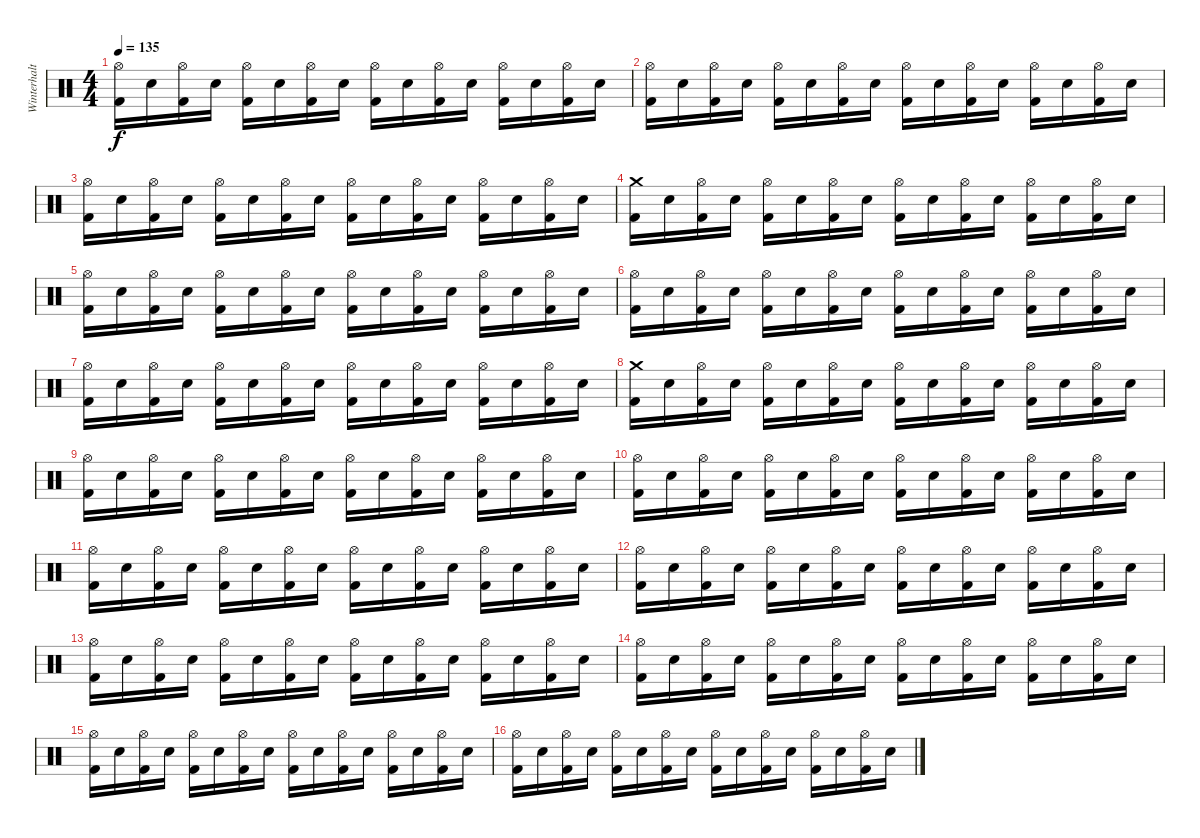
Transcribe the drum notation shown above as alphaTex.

\track ("Winterhalter" "Winterhalt") {instrument percussion}
\staff {score}
\articulation defaults
\ts (4 4)
\tempo 135
\clef neutral
\ks c
("Hi-Hat (open)" "Kick (hit) 2").16{dy f} "Snare (hit) 2".16 ("Hi-Hat (open)" "Kick (hit) 2").16 "Snare (hit) 2".16 ("Hi-Hat (open)" "Kick (hit) 2").16 "Snare (hit) 2".16 ("Hi-Hat (open)" "Kick (hit) 2").16 "Snare (hit) 2".16 ("Hi-Hat (open)" "Kick (hit) 2").16 "Snare (hit) 2".16 ("Hi-Hat (open)" "Kick (hit) 2").16 "Snare (hit) 2".16 ("Hi-Hat (open)" "Kick (hit) 2").16 "Snare (hit) 2".16 ("Hi-Hat (open)" "Kick (hit) 2").16 "Snare (hit) 2".16 |
("Hi-Hat (open)" "Kick (hit) 2").16 "Snare (hit) 2".16 ("Hi-Hat (open)" "Kick (hit) 2").16 "Snare (hit) 2".16 ("Hi-Hat (open)" "Kick (hit) 2").16 "Snare (hit) 2".16 ("Hi-Hat (open)" "Kick (hit) 2").16 "Snare (hit) 2".16 ("Hi-Hat (open)" "Kick (hit) 2").16 "Snare (hit) 2".16 ("Hi-Hat (open)" "Kick (hit) 2").16 "Snare (hit) 2".16 ("Hi-Hat (open)" "Kick (hit) 2").16 "Snare (hit) 2".16 ("Hi-Hat (open)" "Kick (hit) 2").16 "Snare (hit) 2".16 |
("Hi-Hat (open)" "Kick (hit) 2").16 "Snare (hit) 2".16 ("Hi-Hat (open)" "Kick (hit) 2").16 "Snare (hit) 2".16 ("Hi-Hat (open)" "Kick (hit) 2").16 "Snare (hit) 2".16 ("Hi-Hat (open)" "Kick (hit) 2").16 "Snare (hit) 2".16 ("Hi-Hat (open)" "Kick (hit) 2").16 "Snare (hit) 2".16 ("Hi-Hat (open)" "Kick (hit) 2").16 "Snare (hit) 2".16 ("Hi-Hat (open)" "Kick (hit) 2").16 "Snare (hit) 2".16 ("Hi-Hat (open)" "Kick (hit) 2").16 "Snare (hit) 2".16 |
("Crash medium (hit)" "Kick (hit) 2").16 "Snare (hit) 2".16 ("Hi-Hat (open)" "Kick (hit) 2").16 "Snare (hit) 2".16 ("Hi-Hat (open)" "Kick (hit) 2").16 "Snare (hit) 2".16 ("Hi-Hat (open)" "Kick (hit) 2").16 "Snare (hit) 2".16 ("Hi-Hat (open)" "Kick (hit) 2").16 "Snare (hit) 2".16 ("Hi-Hat (open)" "Kick (hit) 2").16 "Snare (hit) 2".16 ("Hi-Hat (open)" "Kick (hit) 2").16 "Snare (hit) 2".16 ("Hi-Hat (open)" "Kick (hit) 2").16 "Snare (hit) 2".16 |
("Hi-Hat (open)" "Kick (hit) 2").16 "Snare (hit) 2".16 ("Hi-Hat (open)" "Kick (hit) 2").16 "Snare (hit) 2".16 ("Hi-Hat (open)" "Kick (hit) 2").16 "Snare (hit) 2".16 ("Hi-Hat (open)" "Kick (hit) 2").16 "Snare (hit) 2".16 ("Hi-Hat (open)" "Kick (hit) 2").16 "Snare (hit) 2".16 ("Hi-Hat (open)" "Kick (hit) 2").16 "Snare (hit) 2".16 ("Hi-Hat (open)" "Kick (hit) 2").16 "Snare (hit) 2".16 ("Hi-Hat (open)" "Kick (hit) 2").16 "Snare (hit) 2".16 |
("Hi-Hat (open)" "Kick (hit) 2").16 "Snare (hit) 2".16 ("Hi-Hat (open)" "Kick (hit) 2").16 "Snare (hit) 2".16 ("Hi-Hat (open)" "Kick (hit) 2").16 "Snare (hit) 2".16 ("Hi-Hat (open)" "Kick (hit) 2").16 "Snare (hit) 2".16 ("Hi-Hat (open)" "Kick (hit) 2").16 "Snare (hit) 2".16 ("Hi-Hat (open)" "Kick (hit) 2").16 "Snare (hit) 2".16 ("Hi-Hat (open)" "Kick (hit) 2").16 "Snare (hit) 2".16 ("Hi-Hat (open)" "Kick (hit) 2").16 "Snare (hit) 2".16 |
("Hi-Hat (open)" "Kick (hit) 2").16 "Snare (hit) 2".16 ("Hi-Hat (open)" "Kick (hit) 2").16 "Snare (hit) 2".16 ("Hi-Hat (open)" "Kick (hit) 2").16 "Snare (hit) 2".16 ("Hi-Hat (open)" "Kick (hit) 2").16 "Snare (hit) 2".16 ("Hi-Hat (open)" "Kick (hit) 2").16 "Snare (hit) 2".16 ("Hi-Hat (open)" "Kick (hit) 2").16 "Snare (hit) 2".16 ("Hi-Hat (open)" "Kick (hit) 2").16 "Snare (hit) 2".16 ("Hi-Hat (open)" "Kick (hit) 2").16 "Snare (hit) 2".16 |
("Crash medium (hit)" "Kick (hit) 2").16 "Snare (hit) 2".16 ("Hi-Hat (open)" "Kick (hit) 2").16 "Snare (hit) 2".16 ("Hi-Hat (open)" "Kick (hit) 2").16 "Snare (hit) 2".16 ("Hi-Hat (open)" "Kick (hit) 2").16 "Snare (hit) 2".16 ("Hi-Hat (open)" "Kick (hit) 2").16 "Snare (hit) 2".16 ("Hi-Hat (open)" "Kick (hit) 2").16 "Snare (hit) 2".16 ("Hi-Hat (open)" "Kick (hit) 2").16 "Snare (hit) 2".16 ("Hi-Hat (open)" "Kick (hit) 2").16 "Snare (hit) 2".16 |
("Hi-Hat (open)" "Kick (hit) 2").16 "Snare (hit) 2".16 ("Hi-Hat (open)" "Kick (hit) 2").16 "Snare (hit) 2".16 ("Hi-Hat (open)" "Kick (hit) 2").16 "Snare (hit) 2".16 ("Hi-Hat (open)" "Kick (hit) 2").16 "Snare (hit) 2".16 ("Hi-Hat (open)" "Kick (hit) 2").16 "Snare (hit) 2".16 ("Hi-Hat (open)" "Kick (hit) 2").16 "Snare (hit) 2".16 ("Hi-Hat (open)" "Kick (hit) 2").16 "Snare (hit) 2".16 ("Hi-Hat (open)" "Kick (hit) 2").16 "Snare (hit) 2".16 |
("Hi-Hat (open)" "Kick (hit) 2").16 "Snare (hit) 2".16 ("Hi-Hat (open)" "Kick (hit) 2").16 "Snare (hit) 2".16 ("Hi-Hat (open)" "Kick (hit) 2").16 "Snare (hit) 2".16 ("Hi-Hat (open)" "Kick (hit) 2").16 "Snare (hit) 2".16 ("Hi-Hat (open)" "Kick (hit) 2").16 "Snare (hit) 2".16 ("Hi-Hat (open)" "Kick (hit) 2").16 "Snare (hit) 2".16 ("Hi-Hat (open)" "Kick (hit) 2").16 "Snare (hit) 2".16 ("Hi-Hat (open)" "Kick (hit) 2").16 "Snare (hit) 2".16 |
("Hi-Hat (open)" "Kick (hit) 2").16 "Snare (hit) 2".16 ("Hi-Hat (open)" "Kick (hit) 2").16 "Snare (hit) 2".16 ("Hi-Hat (open)" "Kick (hit) 2").16 "Snare (hit) 2".16 ("Hi-Hat (open)" "Kick (hit) 2").16 "Snare (hit) 2".16 ("Hi-Hat (open)" "Kick (hit) 2").16 "Snare (hit) 2".16 ("Hi-Hat (open)" "Kick (hit) 2").16 "Snare (hit) 2".16 ("Hi-Hat (open)" "Kick (hit) 2").16 "Snare (hit) 2".16 ("Hi-Hat (open)" "Kick (hit) 2").16 "Snare (hit) 2".16 |
("Hi-Hat (open)" "Kick (hit) 2").16 "Snare (hit) 2".16 ("Hi-Hat (open)" "Kick (hit) 2").16 "Snare (hit) 2".16 ("Hi-Hat (open)" "Kick (hit) 2").16 "Snare (hit) 2".16 ("Hi-Hat (open)" "Kick (hit) 2").16 "Snare (hit) 2".16 ("Hi-Hat (open)" "Kick (hit) 2").16 "Snare (hit) 2".16 ("Hi-Hat (open)" "Kick (hit) 2").16 "Snare (hit) 2".16 ("Hi-Hat (open)" "Kick (hit) 2").16 "Snare (hit) 2".16 ("Hi-Hat (open)" "Kick (hit) 2").16 "Snare (hit) 2".16 |
("Hi-Hat (open)" "Kick (hit) 2").16 "Snare (hit) 2".16 ("Hi-Hat (open)" "Kick (hit) 2").16 "Snare (hit) 2".16 ("Hi-Hat (open)" "Kick (hit) 2").16 "Snare (hit) 2".16 ("Hi-Hat (open)" "Kick (hit) 2").16 "Snare (hit) 2".16 ("Hi-Hat (open)" "Kick (hit) 2").16 "Snare (hit) 2".16 ("Hi-Hat (open)" "Kick (hit) 2").16 "Snare (hit) 2".16 ("Hi-Hat (open)" "Kick (hit) 2").16 "Snare (hit) 2".16 ("Hi-Hat (open)" "Kick (hit) 2").16 "Snare (hit) 2".16 |
("Hi-Hat (open)" "Kick (hit) 2").16 "Snare (hit) 2".16 ("Hi-Hat (open)" "Kick (hit) 2").16 "Snare (hit) 2".16 ("Hi-Hat (open)" "Kick (hit) 2").16 "Snare (hit) 2".16 ("Hi-Hat (open)" "Kick (hit) 2").16 "Snare (hit) 2".16 ("Hi-Hat (open)" "Kick (hit) 2").16 "Snare (hit) 2".16 ("Hi-Hat (open)" "Kick (hit) 2").16 "Snare (hit) 2".16 ("Hi-Hat (open)" "Kick (hit) 2").16 "Snare (hit) 2".16 ("Hi-Hat (open)" "Kick (hit) 2").16 "Snare (hit) 2".16 |
("Hi-Hat (open)" "Kick (hit) 2").16 "Snare (hit) 2".16 ("Hi-Hat (open)" "Kick (hit) 2").16 "Snare (hit) 2".16 ("Hi-Hat (open)" "Kick (hit) 2").16 "Snare (hit) 2".16 ("Hi-Hat (open)" "Kick (hit) 2").16 "Snare (hit) 2".16 ("Hi-Hat (open)" "Kick (hit) 2").16 "Snare (hit) 2".16 ("Hi-Hat (open)" "Kick (hit) 2").16 "Snare (hit) 2".16 ("Hi-Hat (open)" "Kick (hit) 2").16 "Snare (hit) 2".16 ("Hi-Hat (open)" "Kick (hit) 2").16 "Snare (hit) 2".16 |
("Hi-Hat (open)" "Kick (hit) 2").16 "Snare (hit) 2".16 ("Hi-Hat (open)" "Kick (hit) 2").16 "Snare (hit) 2".16 ("Hi-Hat (open)" "Kick (hit) 2").16 "Snare (hit) 2".16 ("Hi-Hat (open)" "Kick (hit) 2").16 "Snare (hit) 2".16 ("Hi-Hat (open)" "Kick (hit) 2").16 "Snare (hit) 2".16 ("Hi-Hat (open)" "Kick (hit) 2").16 "Snare (hit) 2".16 ("Hi-Hat (open)" "Kick (hit) 2").16 "Snare (hit) 2".16 ("Hi-Hat (open)" "Kick (hit) 2").16 "Snare (hit) 2".16
